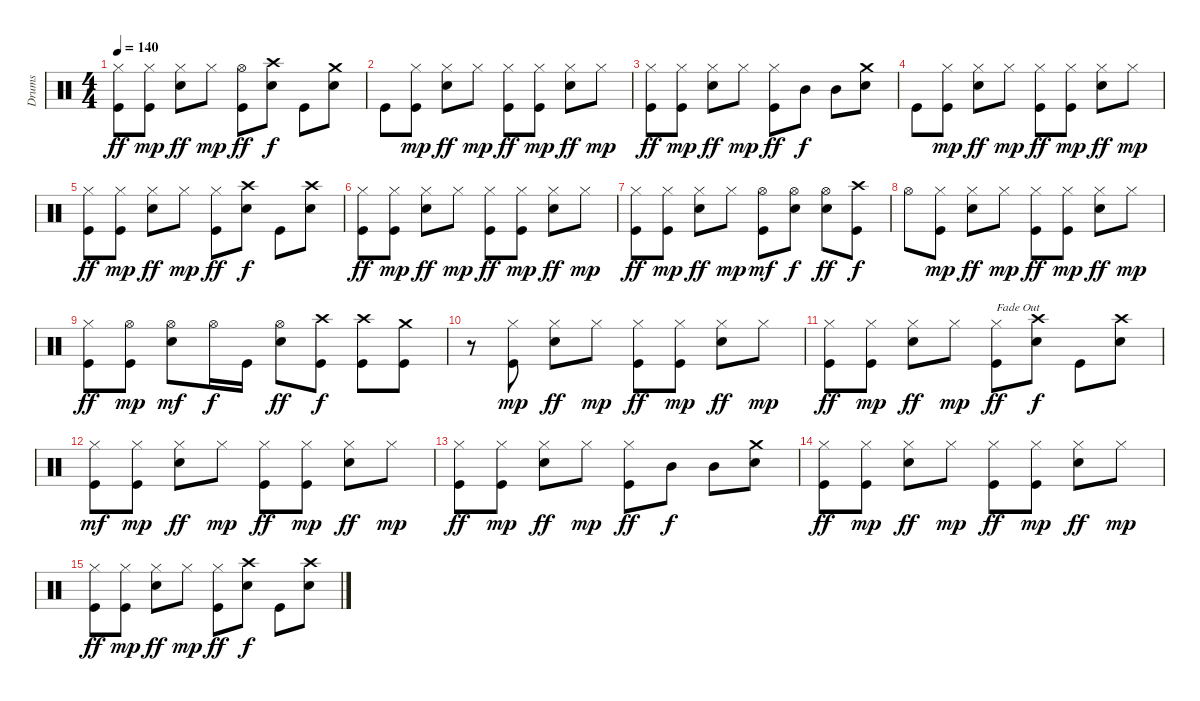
\track ("Drums" "Drums") {instrument percussion}
\staff {score}
\articulation defaults
\ts (4 4)
\tempo 140
\clef neutral
\ks c
("Hi-Hat (closed)" "Kick (hit)").8{dy ff} ("Hi-Hat (closed)" "Kick (hit)").8{dy mp} ("Hi-Hat (closed)" "Snare (hit) 2").8{dy ff} "Hi-Hat (closed)".8{dy mp} ("Hi-Hat (open)" "Kick (hit)").8{dy ff} ("Crash high (hit)" "Snare (hit) 2").8{dy f} "Kick (hit)".8 ("Crash medium (hit)" "Snare (hit) 2").8 |
"Kick (hit)".8 ("Hi-Hat (closed)" "Kick (hit)").8{dy mp} ("Hi-Hat (closed)" "Snare (hit) 2").8{dy ff} "Hi-Hat (closed)".8{dy mp} ("Hi-Hat (closed)" "Kick (hit)").8{dy ff} ("Hi-Hat (closed)" "Kick (hit)").8{dy mp} ("Hi-Hat (closed)" "Snare (hit) 2").8{dy ff} "Hi-Hat (closed)".8{dy mp} |
("Hi-Hat (closed)" "Kick (hit)").8{dy ff} ("Hi-Hat (closed)" "Kick (hit)").8{dy mp} ("Hi-Hat (closed)" "Snare (hit) 2").8{dy ff} "Hi-Hat (closed)".8{dy mp} ("Hi-Hat (closed)" "Kick (hit)").8{dy ff} "Mid Tom (hit)".8{dy f} "Mid Tom (hit)".8 ("Crash medium (hit)" "Snare (hit) 2").8 |
"Kick (hit)".8 ("Hi-Hat (closed)" "Kick (hit)").8{dy mp} ("Hi-Hat (closed)" "Snare (hit) 2").8{dy ff} "Hi-Hat (closed)".8{dy mp} ("Hi-Hat (closed)" "Kick (hit)").8{dy ff} ("Hi-Hat (closed)" "Kick (hit)").8{dy mp} ("Hi-Hat (closed)" "Snare (hit) 2").8{dy ff} "Hi-Hat (closed)".8{dy mp} |
("Hi-Hat (closed)" "Kick (hit)").8{dy ff} ("Hi-Hat (closed)" "Kick (hit)").8{dy mp} ("Hi-Hat (closed)" "Snare (hit) 2").8{dy ff} "Hi-Hat (closed)".8{dy mp} ("Hi-Hat (closed)" "Kick (hit)").8{dy ff} ("Crash high (hit)" "Snare (hit) 2").8{dy f} "Kick (hit)".8 ("Crash high (hit)" "Snare (hit) 2").8 |
("Hi-Hat (closed)" "Kick (hit)").8{dy ff} ("Hi-Hat (closed)" "Kick (hit)").8{dy mp} ("Hi-Hat (closed)" "Snare (hit) 2").8{dy ff} "Hi-Hat (closed)".8{dy mp} ("Hi-Hat (closed)" "Kick (hit)").8{dy ff} ("Hi-Hat (closed)" "Kick (hit)").8{dy mp} ("Hi-Hat (closed)" "Snare (hit) 2").8{dy ff} "Hi-Hat (closed)".8{dy mp} |
("Hi-Hat (closed)" "Kick (hit)").8{dy ff} ("Hi-Hat (closed)" "Kick (hit)").8{dy mp} ("Hi-Hat (closed)" "Snare (hit) 2").8{dy ff} "Hi-Hat (closed)".8{dy mp} ("Hi-Hat (open)" "Kick (hit)").8{dy mf} ("Hi-Hat (open)" "Snare (hit) 2").8{dy f} ("Hi-Hat (open)" "Snare (hit) 2").8{dy ff} ("Crash high (hit)" "Kick (hit)").8{dy f} |
"Hi-Hat (open)".8 ("Hi-Hat (closed)" "Kick (hit)").8{dy mp} ("Hi-Hat (closed)" "Snare (hit) 2").8{dy ff} "Hi-Hat (closed)".8{dy mp} ("Hi-Hat (closed)" "Kick (hit)").8{dy ff} ("Hi-Hat (closed)" "Kick (hit)").8{dy mp} ("Hi-Hat (closed)" "Snare (hit) 2").8{dy ff} "Hi-Hat (closed)".8{dy mp} |
("Hi-Hat (closed)" "Kick (hit)").8{dy ff} ("Hi-Hat (open)" "Kick (hit)").8{dy mp} ("Hi-Hat (open)" "Snare (hit) 2").8{dy mf} "Hi-Hat (open)".16{dy f} "Kick (hit)".16 ("Hi-Hat (open)" "Snare (hit) 2").8{dy ff} ("Crash high (hit)" "Kick (hit)").8{dy f} ("Crash high (hit)" "Kick (hit)").8 ("Crash medium (hit)" "Kick (hit)").8 |
r.8 ("Hi-Hat (closed)" "Kick (hit)").8{dy mp} ("Hi-Hat (closed)" "Snare (hit) 2").8{dy ff} "Hi-Hat (closed)".8{dy mp} ("Hi-Hat (closed)" "Kick (hit)").8{dy ff} ("Hi-Hat (closed)" "Kick (hit)").8{dy mp} ("Hi-Hat (closed)" "Snare (hit) 2").8{dy ff} "Hi-Hat (closed)".8{dy mp} |
("Hi-Hat (closed)" "Kick (hit)").8{dy ff} ("Hi-Hat (closed)" "Kick (hit)").8{dy mp} ("Hi-Hat (closed)" "Snare (hit) 2").8{dy ff} "Hi-Hat (closed)".8{dy mp} ("Hi-Hat (closed)" "Kick (hit)").8{txt "Fade Out" dy ff} ("Crash high (hit)" "Snare (hit) 2").8{dy f} "Kick (hit)".8 ("Crash high (hit)" "Snare (hit) 2").8 |
("Hi-Hat (closed)" "Kick (hit)").8{dy mf} ("Hi-Hat (closed)" "Kick (hit)").8{dy mp} ("Hi-Hat (closed)" "Snare (hit) 2").8{dy ff} "Hi-Hat (closed)".8{dy mp} ("Hi-Hat (closed)" "Kick (hit)").8{dy ff} ("Hi-Hat (closed)" "Kick (hit)").8{dy mp} ("Hi-Hat (closed)" "Snare (hit) 2").8{dy ff} "Hi-Hat (closed)".8{dy mp} |
("Hi-Hat (closed)" "Kick (hit)").8{dy ff} ("Hi-Hat (closed)" "Kick (hit)").8{dy mp} ("Hi-Hat (closed)" "Snare (hit) 2").8{dy ff} "Hi-Hat (closed)".8{dy mp} ("Hi-Hat (closed)" "Kick (hit)").8{dy ff} "Mid Tom (hit)".8{dy f} "Mid Tom (hit)".8 ("Crash medium (hit)" "Snare (hit) 2").8 |
("Hi-Hat (closed)" "Kick (hit)").8{dy ff} ("Hi-Hat (closed)" "Kick (hit)").8{dy mp} ("Hi-Hat (closed)" "Snare (hit) 2").8{dy ff} "Hi-Hat (closed)".8{dy mp} ("Hi-Hat (closed)" "Kick (hit)").8{dy ff} ("Hi-Hat (closed)" "Kick (hit)").8{dy mp} ("Hi-Hat (closed)" "Snare (hit) 2").8{dy ff} "Hi-Hat (closed)".8{dy mp} |
("Hi-Hat (closed)" "Kick (hit)").8{dy ff} ("Hi-Hat (closed)" "Kick (hit)").8{dy mp} ("Hi-Hat (closed)" "Snare (hit) 2").8{dy ff} "Hi-Hat (closed)".8{dy mp} ("Hi-Hat (closed)" "Kick (hit)").8{dy ff} ("Crash high (hit)" "Snare (hit) 2").8{dy f} "Kick (hit)".8 ("Crash high (hit)" "Snare (hit) 2").8
